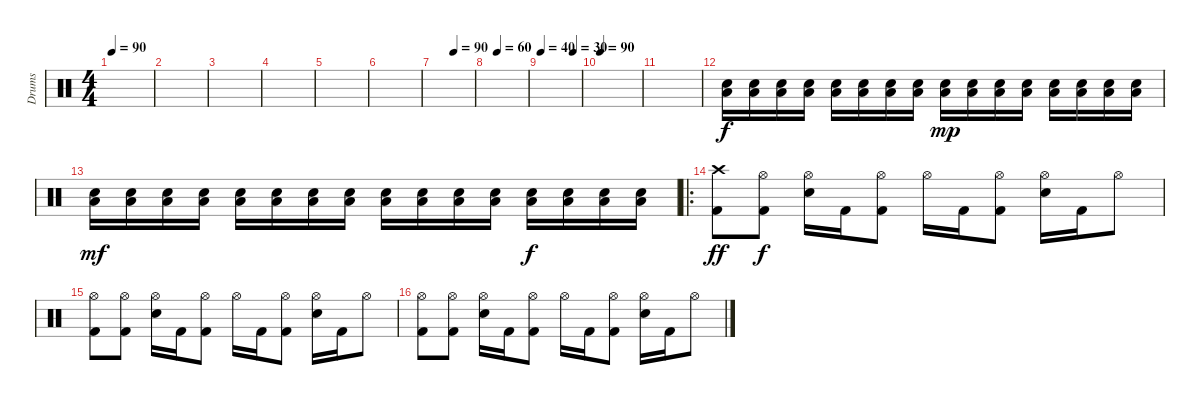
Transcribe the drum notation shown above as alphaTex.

\track ("Drums" "Drums") {instrument percussion}
\staff {score}
\articulation defaults
\ts (4 4)
\tempo 90
\tempo 60
\tempo 90
\clef neutral
\ks c
|
|
|
|
|
|
\tempo (90 0.5)
|
\tempo (60 0.25)
|
\tempo 40
\tempo (30 0.8125)
|
\tempo 90
|
|
("Electric Snare (hit)" "Low Tom (hit)").16 ("Electric Snare (hit)" "Low Tom (hit)").16 ("Electric Snare (hit)" "Low Tom (hit)").16 ("Electric Snare (hit)" "Low Tom (hit)").16 ("Electric Snare (hit)" "Low Tom (hit)").16 ("Electric Snare (hit)" "Low Tom (hit)").16 ("Electric Snare (hit)" "Low Tom (hit)").16 ("Electric Snare (hit)" "Low Tom (hit)").16 ("Electric Snare (hit)" "Low Tom (hit)").16{dy mp} ("Electric Snare (hit)" "Low Tom (hit)").16 ("Electric Snare (hit)" "Low Tom (hit)").16 ("Electric Snare (hit)" "Low Tom (hit)").16 ("Electric Snare (hit)" "Low Tom (hit)").16 ("Electric Snare (hit)" "Low Tom (hit)").16 ("Electric Snare (hit)" "Low Tom (hit)").16 ("Electric Snare (hit)" "Low Tom (hit)").16 |
("Electric Snare (hit)" "Low Tom (hit)").16{dy mf} ("Electric Snare (hit)" "Low Tom (hit)").16 ("Electric Snare (hit)" "Low Tom (hit)").16 ("Electric Snare (hit)" "Low Tom (hit)").16 ("Electric Snare (hit)" "Low Tom (hit)").16 ("Electric Snare (hit)" "Low Tom (hit)").16 ("Electric Snare (hit)" "Low Tom (hit)").16 ("Electric Snare (hit)" "Low Tom (hit)").16 ("Electric Snare (hit)" "Low Tom (hit)").16 ("Electric Snare (hit)" "Low Tom (hit)").16 ("Electric Snare (hit)" "Low Tom (hit)").16 ("Electric Snare (hit)" "Low Tom (hit)").16 ("Electric Snare (hit)" "Low Tom (hit)").16{dy f} ("Electric Snare (hit)" "Low Tom (hit)").16 ("Electric Snare (hit)" "Low Tom (hit)").16 ("Electric Snare (hit)" "Low Tom (hit)").16 |
\ro
("Crash high (hit)" "Kick (hit) 2").8{dy ff} ("Hi-Hat (open)" "Kick (hit) 2").8{dy f} ("Hi-Hat (open)" "Electric Snare (hit)").16 "Kick (hit) 2".16 ("Hi-Hat (open)" "Kick (hit) 2").8 "Hi-Hat (open)".16 "Kick (hit) 2".16 ("Hi-Hat (open)" "Kick (hit) 2").8 ("Hi-Hat (open)" "Electric Snare (hit)").16 "Kick (hit) 2".16 "Hi-Hat (open)".8 |
("Hi-Hat (open)" "Kick (hit) 2").8 ("Hi-Hat (open)" "Kick (hit) 2").8 ("Hi-Hat (open)" "Electric Snare (hit)").16 "Kick (hit) 2".16 ("Hi-Hat (open)" "Kick (hit) 2").8 "Hi-Hat (open)".16 "Kick (hit) 2".16 ("Hi-Hat (open)" "Kick (hit) 2").8 ("Hi-Hat (open)" "Electric Snare (hit)").16 "Kick (hit) 2".16 "Hi-Hat (open)".8 |
("Hi-Hat (open)" "Kick (hit) 2").8 ("Hi-Hat (open)" "Kick (hit) 2").8 ("Hi-Hat (open)" "Electric Snare (hit)").16 "Kick (hit) 2".16 ("Hi-Hat (open)" "Kick (hit) 2").8 "Hi-Hat (open)".16 "Kick (hit) 2".16 ("Hi-Hat (open)" "Kick (hit) 2").8 ("Hi-Hat (open)" "Electric Snare (hit)").16 "Kick (hit) 2".16 "Hi-Hat (open)".8
